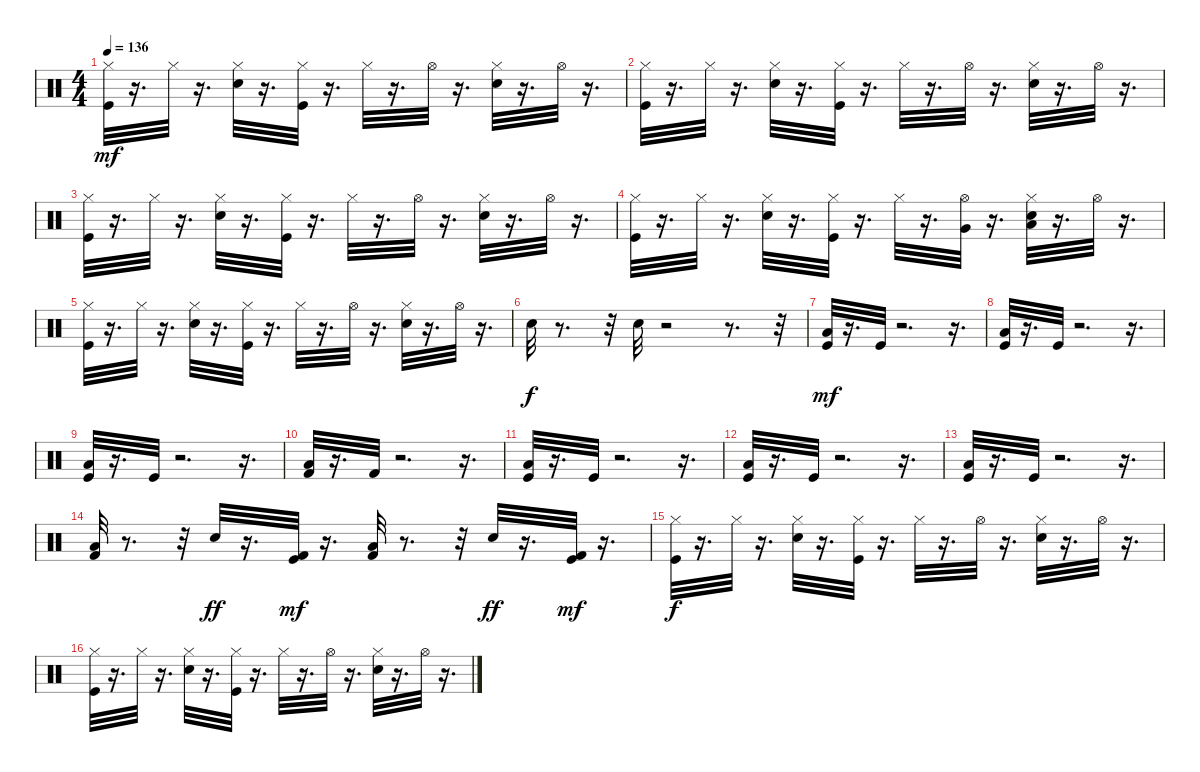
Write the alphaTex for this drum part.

\track "" {instrument percussion}
\staff {score}
\articulation defaults
\ts (4 4)
\tempo 136
\clef neutral
\ks c
("Kick (hit)" "Hi-Hat (closed)").32{dy mf} r.16{d} "Hi-Hat (closed)".32 r.16{d} ("Snare (hit) 2" "Hi-Hat (closed)").32 r.16{d} ("Kick (hit)" "Hi-Hat (closed)").32 r.16{d} "Hi-Hat (closed)".32 r.16{d} "Hi-Hat (open)".32 r.16{d} ("Snare (hit) 2" "Hi-Hat (closed)").32 r.16{d} "Hi-Hat (open)".32 r.16{d} |
("Kick (hit)" "Hi-Hat (closed)").32 r.16{d} "Hi-Hat (closed)".32 r.16{d} ("Snare (hit) 2" "Hi-Hat (closed)").32 r.16{d} ("Kick (hit)" "Hi-Hat (closed)").32 r.16{d} "Hi-Hat (closed)".32 r.16{d} "Hi-Hat (open)".32 r.16{d} ("Snare (hit) 2" "Hi-Hat (closed)").32 r.16{d} "Hi-Hat (open)".32 r.16{d} |
("Kick (hit)" "Hi-Hat (closed)").32 r.16{d} "Hi-Hat (closed)".32 r.16{d} ("Snare (hit) 2" "Hi-Hat (closed)").32 r.16{d} ("Kick (hit)" "Hi-Hat (closed)").32 r.16{d} "Hi-Hat (closed)".32 r.16{d} "Hi-Hat (open)".32 r.16{d} ("Snare (hit) 2" "Hi-Hat (closed)").32 r.16{d} "Hi-Hat (open)".32 r.16{d} |
("Kick (hit)" "Hi-Hat (closed)").32 r.16{d} "Hi-Hat (closed)".32 r.16{d} ("Snare (hit) 2" "Hi-Hat (closed)").32 r.16{d} ("Kick (hit)" "Hi-Hat (closed)").32 r.16{d} "Hi-Hat (closed)".32 r.16{d} ("Very Low Tom (hit)" "Hi-Hat (open)").32 r.16{d} ("Low Floor Tom (hit)" "Snare (hit) 2" "Hi-Hat (closed)").32 r.16{d} "Hi-Hat (open)".32 r.16{d} |
("Kick (hit)" "Hi-Hat (closed)").32 r.16{d} "Hi-Hat (closed)".32 r.16{d} ("Snare (hit) 2" "Hi-Hat (closed)").32 r.16{d} ("Kick (hit)" "Hi-Hat (closed)").32 r.16{d} "Hi-Hat (closed)".32 r.16{d} "Hi-Hat (open)".32 r.16{d} ("Snare (hit) 2" "Hi-Hat (closed)").32 r.16{d} "Hi-Hat (open)".32 r.16{d} |
"Snare (hit) 2".32{dy f} r.8{d} r.32 "Snare (hit) 2".32 r.2 r.8{d} r.32 |
("Low Floor Tom (hit)" "Kick (hit)").32{dy mf} r.16{d} "Kick (hit)".32 r.2{d} r.16{d} |
("Low Floor Tom (hit)" "Kick (hit)").32 r.16{d} "Kick (hit)".32 r.2{d} r.16{d} |
("Low Floor Tom (hit)" "Kick (hit)").32 r.16{d} "Kick (hit)".32 r.2{d} r.16{d} |
("Low Floor Tom (hit)" "Kick (hit) 2").32 r.16{d} "Kick (hit) 2".32 r.2{d} r.16{d} |
("Low Floor Tom (hit)" "Kick (hit)").32 r.16{d} "Kick (hit)".32 r.2{d} r.16{d} |
("Low Floor Tom (hit)" "Kick (hit)").32 r.16{d} "Kick (hit)".32 r.2{d} r.16{d} |
("Low Floor Tom (hit)" "Kick (hit)").32 r.16{d} "Kick (hit)".32 r.2{d} r.16{d} |
("Low Floor Tom (hit)" "Kick (hit) 2").32 r.8{d} r.32 "Snare (hit) 2".32{dy ff} r.16{d} ("Kick (hit)" "Kick (hit) 2").32{dy mf} r.16{d} ("Low Floor Tom (hit)" "Kick (hit) 2").32 r.8{d} r.32 "Snare (hit) 2".32{dy ff} r.16{d} ("Kick (hit)" "Kick (hit) 2").32{dy mf} r.16{d} |
("Kick (hit)" "Hi-Hat (closed)").32{dy f} r.16{d} "Hi-Hat (closed)".32 r.16{d} ("Snare (hit) 2" "Hi-Hat (closed)").32 r.16{d} ("Kick (hit)" "Hi-Hat (closed)").32 r.16{d} "Hi-Hat (closed)".32 r.16{d} "Hi-Hat (open)".32 r.16{d} ("Snare (hit) 2" "Hi-Hat (closed)").32 r.16{d} "Hi-Hat (open)".32 r.16{d} |
("Kick (hit)" "Hi-Hat (closed)").32 r.16{d} "Hi-Hat (closed)".32 r.16{d} ("Snare (hit) 2" "Hi-Hat (closed)").32 r.16{d} ("Kick (hit)" "Hi-Hat (closed)").32 r.16{d} "Hi-Hat (closed)".32 r.16{d} "Hi-Hat (open)".32 r.16{d} ("Snare (hit) 2" "Hi-Hat (closed)").32 r.16{d} "Hi-Hat (open)".32 r.16{d}
